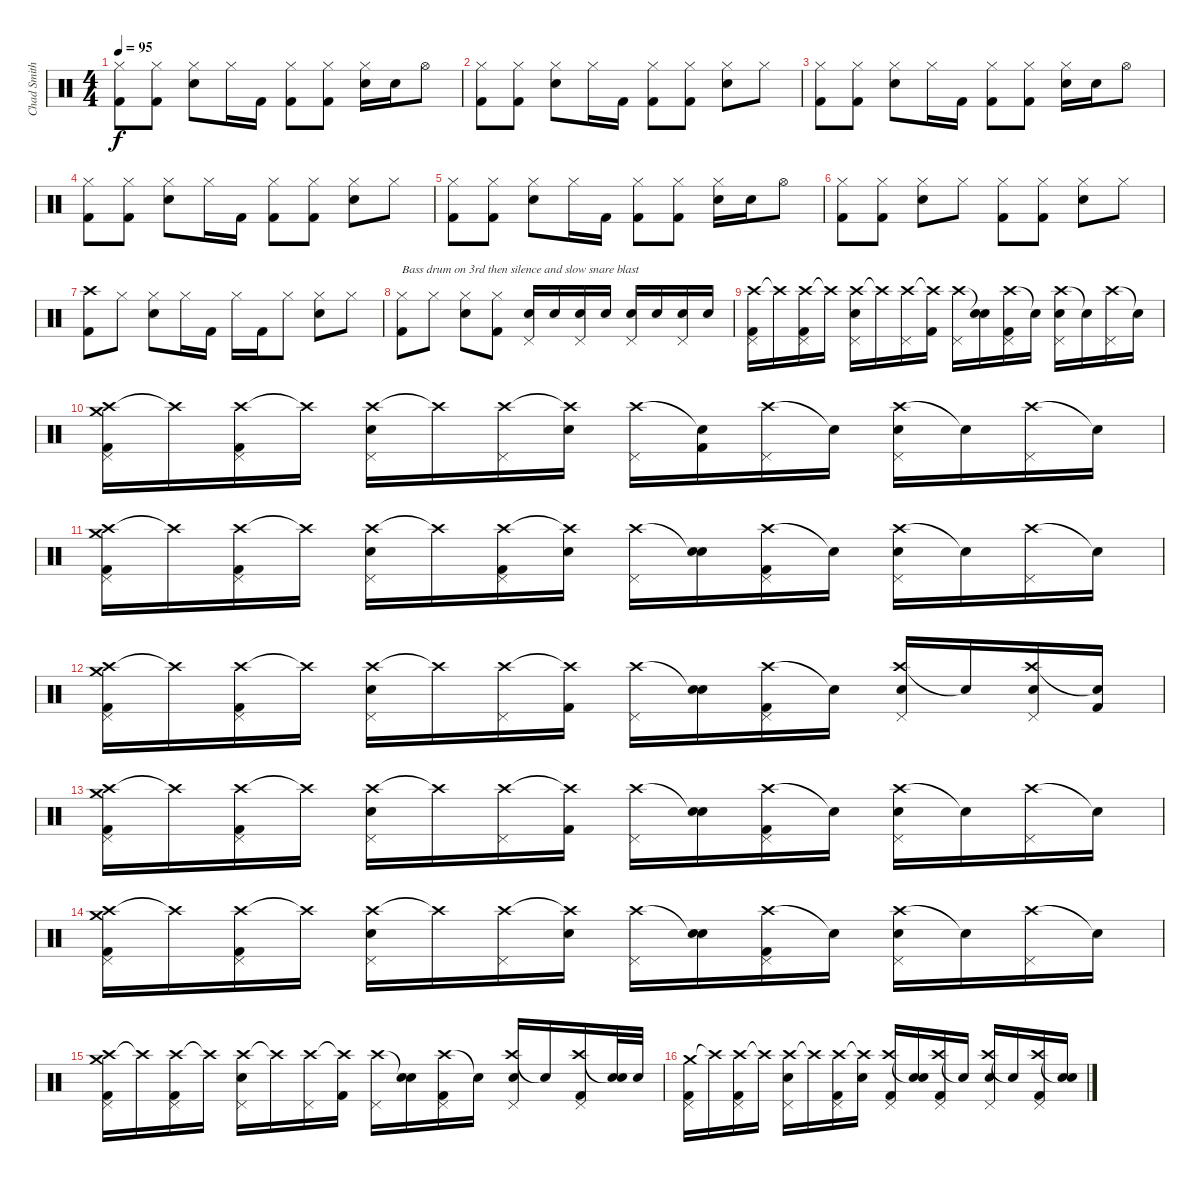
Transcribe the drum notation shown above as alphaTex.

\track ("Chad Smith" "Chad Smith") {instrument percussion}
\staff {score}
\articulation defaults
\ts (4 4)
\tempo 95
\clef neutral
\ks c
("Hi-Hat (closed)" "Kick (hit) 2").8{dy f} ("Hi-Hat (closed)" "Kick (hit) 2").8 ("Hi-Hat (closed)" "Snare (hit) 2").8 "Hi-Hat (closed)".16 "Kick (hit) 2".16 ("Hi-Hat (closed)" "Kick (hit) 2").8 ("Hi-Hat (closed)" "Kick (hit) 2").8 ("Hi-Hat (closed)" "Snare (hit) 2").16 "Snare (hit) 2".16 "Hi-Hat (open)".8 |
("Hi-Hat (closed)" "Kick (hit) 2").8 ("Hi-Hat (closed)" "Kick (hit) 2").8 ("Hi-Hat (closed)" "Snare (hit) 2").8 "Hi-Hat (closed)".16 "Kick (hit) 2".16 ("Hi-Hat (closed)" "Kick (hit) 2").8 ("Hi-Hat (closed)" "Kick (hit) 2").8 ("Hi-Hat (closed)" "Snare (hit) 2").8 "Hi-Hat (closed)".8 |
("Hi-Hat (closed)" "Kick (hit) 2").8 ("Hi-Hat (closed)" "Kick (hit) 2").8 ("Hi-Hat (closed)" "Snare (hit) 2").8 "Hi-Hat (closed)".16 "Kick (hit) 2".16 ("Hi-Hat (closed)" "Kick (hit) 2").8 ("Hi-Hat (closed)" "Kick (hit) 2").8 ("Hi-Hat (closed)" "Snare (hit) 2").16 "Snare (hit) 2".16 "Hi-Hat (open)".8 |
("Hi-Hat (closed)" "Kick (hit) 2").8 ("Hi-Hat (closed)" "Kick (hit) 2").8 ("Hi-Hat (closed)" "Snare (hit) 2").8 "Hi-Hat (closed)".16 "Kick (hit) 2".16 ("Hi-Hat (closed)" "Kick (hit) 2").8 ("Hi-Hat (closed)" "Kick (hit) 2").8 ("Hi-Hat (closed)" "Snare (hit) 2").8 "Hi-Hat (closed)".8 |
("Hi-Hat (closed)" "Kick (hit) 2").8 ("Hi-Hat (closed)" "Kick (hit) 2").8 ("Hi-Hat (closed)" "Snare (hit) 2").8 "Hi-Hat (closed)".16 "Kick (hit) 2".16 ("Hi-Hat (closed)" "Kick (hit) 2").8 ("Hi-Hat (closed)" "Kick (hit) 2").8 ("Hi-Hat (closed)" "Snare (hit) 2").16 "Snare (hit) 2".16 "Hi-Hat (open)".8 |
("Hi-Hat (closed)" "Kick (hit) 2").8 ("Hi-Hat (closed)" "Kick (hit) 2").8 ("Hi-Hat (closed)" "Snare (hit) 2").8 "Hi-Hat (closed)".8 ("Hi-Hat (closed)" "Kick (hit) 2").8 ("Hi-Hat (closed)" "Kick (hit) 2").8 ("Hi-Hat (closed)" "Snare (hit) 2").8 "Hi-Hat (closed)".8 |
("Crash high (hit)" "Kick (hit) 2").8 "Hi-Hat (closed)".8 ("Hi-Hat (closed)" "Snare (hit) 2").8 "Hi-Hat (closed)".16 "Kick (hit) 2".16 "Hi-Hat (closed)".16 "Kick (hit) 2".16 "Hi-Hat (closed)".8 ("Hi-Hat (closed)" "Snare (hit) 2").8 "Hi-Hat (closed)".8 |
("Hi-Hat (closed)" "Kick (hit) 2").8{txt "Bass drum on 3rd then silence and slow snare blast"} "Hi-Hat (closed)".8 ("Hi-Hat (closed)" "Snare (hit) 2").8 ("Hi-Hat (closed)" "Kick (hit) 2").8 ("Snare (hit) 2" "Pedal Hi-Hat (hit)").16 "Snare (hit) 2".16 ("Snare (hit) 2" "Pedal Hi-Hat (hit)").16 "Snare (hit) 2".16 ("Snare (hit) 2" "Pedal Hi-Hat (hit)").16 "Snare (hit) 2".16 ("Snare (hit) 2" "Pedal Hi-Hat (hit)").16 "Snare (hit) 2".16 |
("Crash high (hit)" "Pedal Hi-Hat (hit)" "Kick (hit) 2").16 "Crash high (hit)"{t}.16 ("Crash high (hit)" "Pedal Hi-Hat (hit)" "Kick (hit) 2").16 "Crash high (hit)"{t}.16 ("Crash high (hit)" "Snare (hit) 2" "Pedal Hi-Hat (hit)").16 "Crash high (hit)"{t}.16 ("Crash high (hit)" "Pedal Hi-Hat (hit)").16 ("Crash high (hit)"{t} "Kick (hit) 2").16 ("Crash high (hit)" "Pedal Hi-Hat (hit)").16 ("Snare (hit)"{t} "Snare (hit) 2").16 ("Crash high (hit)" "Pedal Hi-Hat (hit)" "Kick (hit) 2").16 "Snare (hit)"{t}.16 ("Crash high (hit)" "Snare (hit) 2" "Pedal Hi-Hat (hit)").16 "Snare (hit)"{t}.16 ("Crash high (hit)" "Pedal Hi-Hat (hit)").16 "Snare (hit)"{t}.16 |
("Crash high (hit)" "Crash medium (hit)" "Pedal Hi-Hat (hit)" "Kick (hit) 2").16 "Crash high (hit)"{t}.16 ("Crash high (hit)" "Pedal Hi-Hat (hit)" "Kick (hit) 2").16 "Crash high (hit)"{t}.16 ("Crash high (hit)" "Snare (hit) 2" "Pedal Hi-Hat (hit)").16 "Crash high (hit)"{t}.16 ("Crash high (hit)" "Pedal Hi-Hat (hit)").16 ("Crash high (hit)"{t} "Snare (hit) 2").16 ("Crash high (hit)" "Pedal Hi-Hat (hit)").16 ("Snare (hit)"{t} "Kick (hit) 2").16 ("Crash high (hit)" "Pedal Hi-Hat (hit)").16 "Snare (hit)"{t}.16 ("Crash high (hit)" "Snare (hit) 2" "Pedal Hi-Hat (hit)").16 "Snare (hit)"{t}.16 ("Crash high (hit)" "Pedal Hi-Hat (hit)").16 "Snare (hit)"{t}.16 |
("Crash high (hit)" "Crash medium (hit)" "Pedal Hi-Hat (hit)" "Kick (hit) 2").16 "Crash high (hit)"{t}.16 ("Crash high (hit)" "Pedal Hi-Hat (hit)" "Kick (hit) 2").16 "Crash high (hit)"{t}.16 ("Crash high (hit)" "Snare (hit) 2" "Pedal Hi-Hat (hit)").16 "Crash high (hit)"{t}.16 ("Crash high (hit)" "Pedal Hi-Hat (hit)" "Kick (hit) 2").16 ("Crash high (hit)"{t} "Snare (hit) 2").16 ("Crash high (hit)" "Pedal Hi-Hat (hit)").16 ("Snare (hit)"{t} "Snare (hit) 2").16 ("Crash high (hit)" "Pedal Hi-Hat (hit)" "Kick (hit) 2").16 "Snare (hit)"{t}.16 ("Crash high (hit)" "Snare (hit) 2" "Pedal Hi-Hat (hit)").16 "Snare (hit)"{t}.16 ("Crash high (hit)" "Pedal Hi-Hat (hit)").16 "Snare (hit)"{t}.16 |
("Crash high (hit)" "Crash medium (hit)" "Pedal Hi-Hat (hit)" "Kick (hit) 2").16 "Crash high (hit)"{t}.16 ("Crash high (hit)" "Pedal Hi-Hat (hit)" "Kick (hit) 2").16 "Crash high (hit)"{t}.16 ("Crash high (hit)" "Snare (hit) 2" "Pedal Hi-Hat (hit)").16 "Crash high (hit)"{t}.16 ("Crash high (hit)" "Pedal Hi-Hat (hit)").16 ("Crash high (hit)"{t} "Kick (hit) 2").16 ("Crash high (hit)" "Pedal Hi-Hat (hit)").16 ("Snare (hit)"{t} "Snare (hit) 2").16 ("Crash high (hit)" "Pedal Hi-Hat (hit)" "Kick (hit) 2").16 "Snare (hit)"{t}.16 ("Crash high (hit)" "Snare (hit) 2" "Pedal Hi-Hat (hit)").16 "Snare (hit)"{t}.16 ("Crash high (hit)" "Snare (hit) 2" "Pedal Hi-Hat (hit)").16 ("Snare (hit)"{t} "Kick (hit) 2").16 |
("Crash high (hit)" "Crash medium (hit)" "Pedal Hi-Hat (hit)" "Kick (hit) 2").16 "Crash high (hit)"{t}.16 ("Crash high (hit)" "Pedal Hi-Hat (hit)" "Kick (hit) 2").16 "Crash high (hit)"{t}.16 ("Crash high (hit)" "Snare (hit) 2" "Pedal Hi-Hat (hit)").16 "Crash high (hit)"{t}.16 ("Crash high (hit)" "Pedal Hi-Hat (hit)").16 ("Crash high (hit)"{t} "Kick (hit) 2").16 ("Crash high (hit)" "Pedal Hi-Hat (hit)").16 ("Snare (hit)"{t} "Snare (hit) 2").16 ("Crash high (hit)" "Pedal Hi-Hat (hit)" "Kick (hit) 2").16 "Snare (hit)"{t}.16 ("Crash high (hit)" "Snare (hit) 2" "Pedal Hi-Hat (hit)").16 "Snare (hit)"{t}.16 ("Crash high (hit)" "Pedal Hi-Hat (hit)").16 "Snare (hit)"{t}.16 |
("Crash high (hit)" "Crash medium (hit)" "Pedal Hi-Hat (hit)" "Kick (hit) 2").16 "Crash high (hit)"{t}.16 ("Crash high (hit)" "Pedal Hi-Hat (hit)" "Kick (hit) 2").16 "Crash high (hit)"{t}.16 ("Crash high (hit)" "Snare (hit) 2" "Pedal Hi-Hat (hit)").16 "Crash high (hit)"{t}.16 ("Crash high (hit)" "Pedal Hi-Hat (hit)").16 ("Crash high (hit)"{t} "Snare (hit) 2").16 ("Crash high (hit)" "Pedal Hi-Hat (hit)").16 ("Snare (hit)"{t} "Snare (hit) 2").16 ("Crash high (hit)" "Pedal Hi-Hat (hit)" "Kick (hit) 2").16 "Snare (hit)"{t}.16 ("Crash high (hit)" "Snare (hit) 2" "Pedal Hi-Hat (hit)").16 "Snare (hit)"{t}.16 ("Crash high (hit)" "Pedal Hi-Hat (hit)").16 "Snare (hit)"{t}.16 |
("Crash high (hit)" "Crash medium (hit)" "Pedal Hi-Hat (hit)" "Kick (hit) 2").16 "Crash high (hit)"{t}.16 ("Crash high (hit)" "Pedal Hi-Hat (hit)" "Kick (hit) 2").16 "Crash high (hit)"{t}.16 ("Crash high (hit)" "Snare (hit) 2" "Pedal Hi-Hat (hit)").16 "Crash high (hit)"{t}.16 ("Crash high (hit)" "Pedal Hi-Hat (hit)").16 ("Crash high (hit)"{t} "Kick (hit) 2").16 ("Crash high (hit)" "Pedal Hi-Hat (hit)").16 ("Snare (hit)"{t} "Snare (hit) 2").16 ("Crash high (hit)" "Pedal Hi-Hat (hit)" "Kick (hit) 2").16 "Snare (hit)"{t}.16 ("Crash high (hit)" "Snare (hit) 2" "Pedal Hi-Hat (hit)").16 "Snare (hit)"{t}.16 ("Crash high (hit)" "Pedal Hi-Hat (hit)" "Kick (hit) 2").16 ("Snare (hit)"{t} "Snare (hit) 2").32 "Snare (hit) 2".32 |
("Crash medium (hit)" "Pedal Hi-Hat (hit)" "Kick (hit) 2").16 "Crash high (hit)"{t}.16 ("Crash high (hit)" "Pedal Hi-Hat (hit)" "Kick (hit) 2").16 "Crash high (hit)"{t}.16 ("Crash high (hit)" "Snare (hit) 2" "Pedal Hi-Hat (hit)").16 "Crash high (hit)"{t}.16 ("Crash high (hit)" "Pedal Hi-Hat (hit)" "Kick (hit) 2").16 ("Crash high (hit)"{t} "Snare (hit) 2").16 ("Crash high (hit)" "Pedal Hi-Hat (hit)" "Kick (hit) 2").16 ("Snare (hit)"{t} "Snare (hit) 2").16 ("Crash high (hit)" "Pedal Hi-Hat (hit)" "Kick (hit) 2").16 "Snare (hit)"{t}.16 ("Crash high (hit)" "Snare (hit) 2" "Pedal Hi-Hat (hit)").16 "Snare (hit)"{t}.16 ("Crash high (hit)" "Pedal Hi-Hat (hit)" "Kick (hit) 2").16 ("Snare (hit)"{t} "Snare (hit) 2").16
